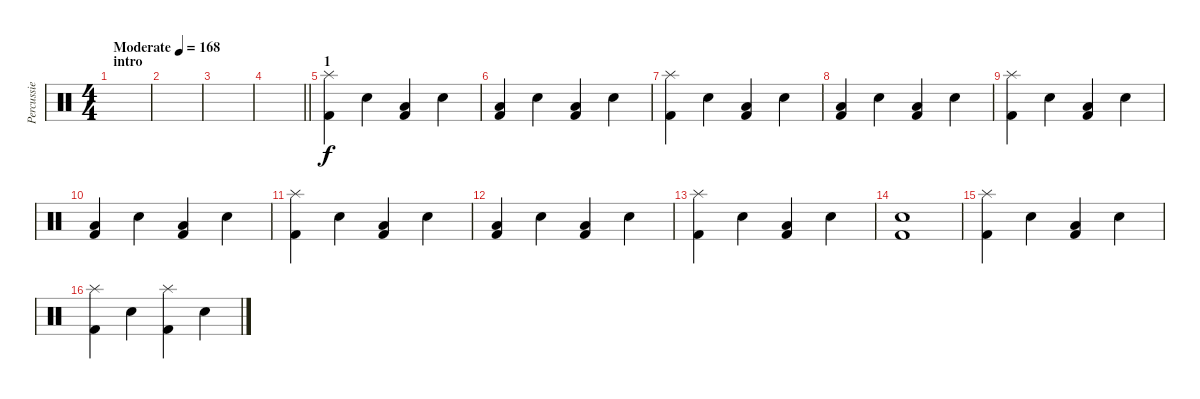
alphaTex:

\track ("Percussie" "Percussie") {instrument percussion}
\staff {score}
\articulation defaults
\ts (4 4)
\section ("" "intro")
\tempo (168 "Moderate")
\clef neutral
\ks c
|
|
|
\barLineRight lightlight
|
\section ("" "1")
("Splash (hit)" "Kick (hit) 2").4 "Snare (hit) 2".4 ("Low Floor Tom (hit)" "Kick (hit) 2").4 "Snare (hit) 2".4 |
("Low Floor Tom (hit)" "Kick (hit) 2").4 "Snare (hit) 2".4 ("Low Floor Tom (hit)" "Kick (hit) 2").4 "Snare (hit) 2".4 |
("Splash (hit)" "Kick (hit) 2").4 "Snare (hit) 2".4 ("Low Floor Tom (hit)" "Kick (hit) 2").4 "Snare (hit) 2".4 |
("Low Floor Tom (hit)" "Kick (hit) 2").4 "Snare (hit) 2".4 ("Low Floor Tom (hit)" "Kick (hit) 2").4 "Snare (hit) 2".4 |
("Splash (hit)" "Kick (hit) 2").4 "Snare (hit) 2".4 ("Low Floor Tom (hit)" "Kick (hit) 2").4 "Snare (hit) 2".4 |
("Low Floor Tom (hit)" "Kick (hit) 2").4 "Snare (hit) 2".4 ("Low Floor Tom (hit)" "Kick (hit) 2").4 "Snare (hit) 2".4 |
("Splash (hit)" "Kick (hit) 2").4 "Snare (hit) 2".4 ("Low Floor Tom (hit)" "Kick (hit) 2").4 "Snare (hit) 2".4 |
("Low Floor Tom (hit)" "Kick (hit) 2").4 "Snare (hit) 2".4 ("Low Floor Tom (hit)" "Kick (hit) 2").4 "Snare (hit) 2".4 |
("Splash (hit)" "Kick (hit) 2").4 "Snare (hit) 2".4 ("Low Floor Tom (hit)" "Kick (hit) 2").4 "Snare (hit) 2".4 |
("Snare (hit) 2" "Kick (hit) 2").1 |
("Splash (hit)" "Kick (hit) 2").4 "Snare (hit) 2".4 ("Low Floor Tom (hit)" "Kick (hit) 2").4 "Snare (hit) 2".4 |
("Splash (hit)" "Kick (hit) 2").4 "Snare (hit) 2".4 ("Splash (hit)" "Kick (hit) 2").4 "Snare (hit) 2".4
